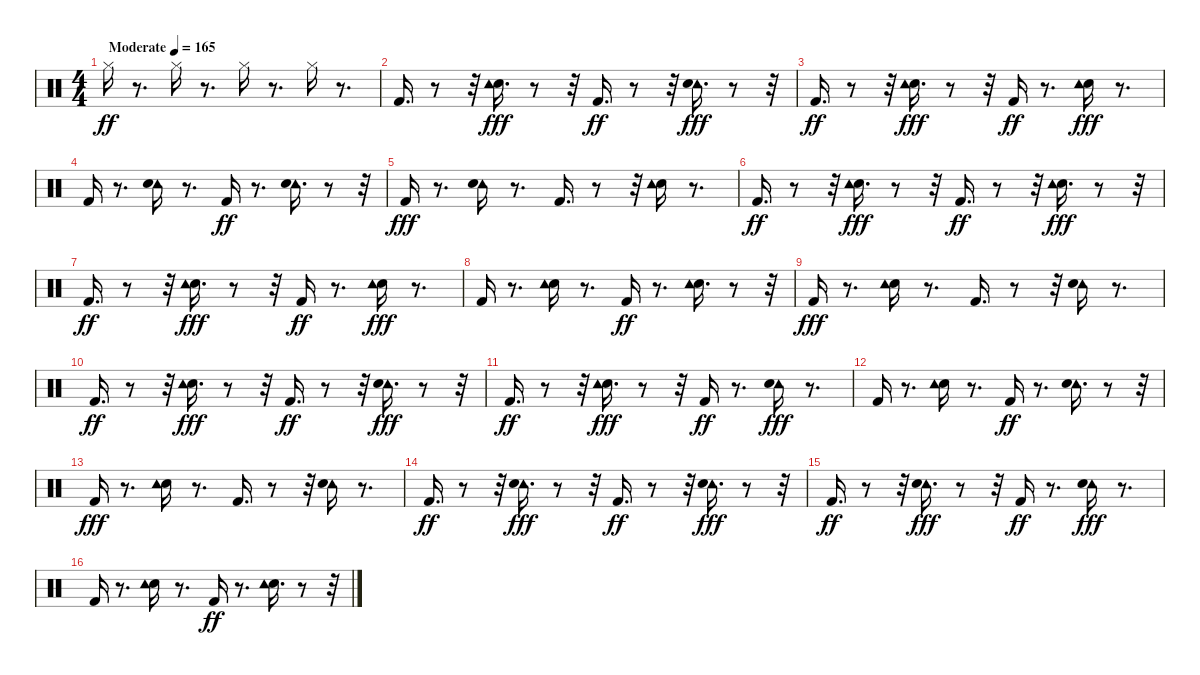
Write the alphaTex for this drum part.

\track "" {solo instrument percussion}
\staff {score}
\articulation defaults
\ts (4 4)
\tempo (165 "Moderate")
\clef neutral
\ks c "Hi-Hat (closed)".16{dy ff}
r.8{d} "Hi-Hat (closed)".16 r.8{d} "Hi-Hat (closed)".16 r.8{d} "Hi-Hat (closed)".16 r.8{d} |
"Kick (hit) 2".16{d} r.8 r.32 ("Electric Snare (hit)" "Tambourine (hit)").16{d dy fff} r.8 r.32 "Kick (hit) 2".16{d dy ff} r.8 r.32 ("Tambourine (hit)" "Electric Snare (hit)").16{d dy fff} r.8 r.32 |
"Kick (hit) 2".16{d dy ff} r.8 r.32 ("Electric Snare (hit)" "Tambourine (hit)").16{d dy fff} r.8 r.32 "Kick (hit) 2".16{dy ff} r.8{d} ("Electric Snare (hit)" "Tambourine (hit)").16{dy fff} r.8{d} |
"Kick (hit) 2".16 r.8{d} ("Tambourine (hit)" "Electric Snare (hit)").16 r.8{d} "Kick (hit) 2".16{dy ff} r.8{d} ("Tambourine (hit)" "Electric Snare (hit)").16{d} r.8 r.32 |
"Kick (hit) 2".16{dy fff} r.8{d} ("Tambourine (hit)" "Electric Snare (hit)").16 r.8{d} "Kick (hit) 2".16{d} r.8 r.32 ("Electric Snare (hit)" "Tambourine (hit)").16 r.8{d} |
"Kick (hit) 2".16{d dy ff} r.8 r.32 ("Electric Snare (hit)" "Tambourine (hit)").16{d dy fff} r.8 r.32 "Kick (hit) 2".16{d dy ff} r.8 r.32 ("Electric Snare (hit)" "Tambourine (hit)").16{d dy fff} r.8 r.32 |
"Kick (hit) 2".16{d dy ff} r.8 r.32 ("Electric Snare (hit)" "Tambourine (hit)").16{d dy fff} r.8 r.32 "Kick (hit) 2".16{dy ff} r.8{d} ("Electric Snare (hit)" "Tambourine (hit)").16{dy fff} r.8{d} |
"Kick (hit) 2".16 r.8{d} ("Electric Snare (hit)" "Tambourine (hit)").16 r.8{d} "Kick (hit) 2".16{dy ff} r.8{d} ("Electric Snare (hit)" "Tambourine (hit)").16{d} r.8 r.32 |
"Kick (hit) 2".16{dy fff} r.8{d} ("Electric Snare (hit)" "Tambourine (hit)").16 r.8{d} "Kick (hit) 2".16{d} r.8 r.32 ("Tambourine (hit)" "Electric Snare (hit)").16 r.8{d} |
"Kick (hit) 2".16{d dy ff} r.8 r.32 ("Electric Snare (hit)" "Tambourine (hit)").16{d dy fff} r.8 r.32 "Kick (hit) 2".16{d dy ff} r.8 r.32 ("Tambourine (hit)" "Electric Snare (hit)").16{d dy fff} r.8 r.32 |
"Kick (hit) 2".16{d dy ff} r.8 r.32 ("Electric Snare (hit)" "Tambourine (hit)").16{d dy fff} r.8 r.32 "Kick (hit) 2".16{dy ff} r.8{d} ("Tambourine (hit)" "Electric Snare (hit)").16{dy fff} r.8{d} |
"Kick (hit) 2".16 r.8{d} ("Electric Snare (hit)" "Tambourine (hit)").16 r.8{d} "Kick (hit) 2".16{dy ff} r.8{d} ("Tambourine (hit)" "Electric Snare (hit)").16{d} r.8 r.32 |
"Kick (hit) 2".16{dy fff} r.8{d} ("Electric Snare (hit)" "Tambourine (hit)").16 r.8{d} "Kick (hit) 2".16{d} r.8 r.32 ("Tambourine (hit)" "Electric Snare (hit)").16 r.8{d} |
"Kick (hit) 2".16{d dy ff} r.8 r.32 ("Tambourine (hit)" "Electric Snare (hit)").16{d dy fff} r.8 r.32 "Kick (hit) 2".16{d dy ff} r.8 r.32 ("Tambourine (hit)" "Electric Snare (hit)").16{d dy fff} r.8 r.32 |
"Kick (hit) 2".16{d dy ff} r.8 r.32 ("Tambourine (hit)" "Electric Snare (hit)").16{d dy fff} r.8 r.32 "Kick (hit) 2".16{dy ff} r.8{d} ("Tambourine (hit)" "Electric Snare (hit)").16{dy fff} r.8{d} |
"Kick (hit) 2".16 r.8{d} ("Electric Snare (hit)" "Tambourine (hit)").16 r.8{d} "Kick (hit) 2".16{dy ff} r.8{d} ("Electric Snare (hit)" "Tambourine (hit)").16{d} r.8 r.32
